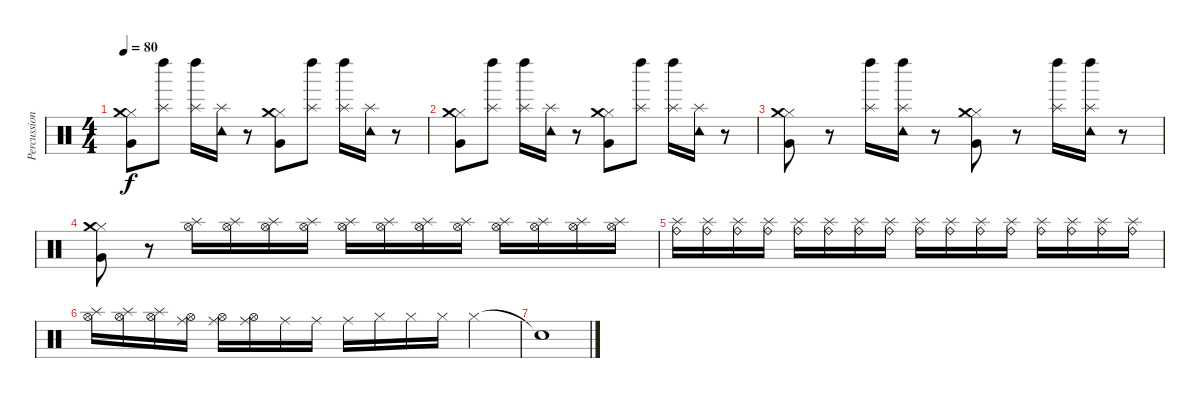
\track ("Percussion" "Percussion") {instrument percussion}
\staff {score}
\articulation defaults
\ts (4 4)
\tempo 80
\clef neutral
\ks c
("Hi-Hat (closed)" "Very Low Tom (hit)" "Crash medium (hit)").8{dy f} ("Left Maraca (hit)" "Splash (hit)").8 ("Left Maraca (hit)" "Splash (hit)").16 ("Tambourine (hit)" "Splash (hit)").16 r.8 ("Hi-Hat (closed)" "Very Low Tom (hit)" "Crash medium (hit)").8 ("Left Maraca (hit)" "Splash (hit)").8 ("Left Maraca (hit)" "Splash (hit)").16 ("Tambourine (hit)" "Splash (hit)").16 r.8 |
("Hi-Hat (closed)" "Very Low Tom (hit)" "Crash medium (hit)").8 ("Left Maraca (hit)" "Splash (hit)").8 ("Left Maraca (hit)" "Splash (hit)").16 ("Tambourine (hit)" "Splash (hit)").16 r.8 ("Hi-Hat (closed)" "Very Low Tom (hit)" "Crash medium (hit)").8 ("Left Maraca (hit)" "Splash (hit)").8 ("Left Maraca (hit)" "Splash (hit)").16 ("Tambourine (hit)" "Splash (hit)").16 r.8 |
("Hi-Hat (closed)" "Very Low Tom (hit)" "Crash medium (hit)").8 r.8 ("Left Maraca (hit)" "Splash (hit)").16 ("Tambourine (hit)" "Splash (hit)" "Left Maraca (hit)").16 r.8 ("Hi-Hat (closed)" "Very Low Tom (hit)" "Crash medium (hit)").8 r.8 ("Left Maraca (hit)" "Splash (hit)").16 ("Tambourine (hit)" "Splash (hit)" "Left Maraca (hit)").16 r.8 |
("Hi-Hat (closed)" "Very Low Tom (hit)" "Crash medium (hit)").8 r.8 ("Splash (hit)" "Hi-Hat (open)").16 ("Splash (hit)" "Hi-Hat (open)").16 ("Splash (hit)" "Hi-Hat (open)").16 ("Splash (hit)" "Hi-Hat (open)").16 ("Splash (hit)" "Hi-Hat (open)").16 ("Splash (hit)" "Hi-Hat (open)").16 ("Splash (hit)" "Hi-Hat (open)").16 ("Splash (hit)" "Hi-Hat (open)").16 ("Splash (hit)" "Hi-Hat (open)").16 ("Splash (hit)" "Hi-Hat (open)").16 ("Splash (hit)" "Hi-Hat (open)").16 ("Splash (hit)" "Hi-Hat (open)").16 |
("Splash (hit)" "Ride (bell)").16 ("Splash (hit)" "Ride (bell)").16 ("Splash (hit)" "Ride (bell)").16 ("Splash (hit)" "Ride (bell)").16 ("Splash (hit)" "Ride (bell)").16 ("Splash (hit)" "Ride (bell)").16 ("Splash (hit)" "Ride (bell)").16 ("Splash (hit)" "Ride (bell)").16 ("Splash (hit)" "Ride (bell)").16 ("Splash (hit)" "Ride (bell)").16 ("Splash (hit)" "Ride (bell)").16 ("Splash (hit)" "Ride (bell)").16 ("Splash (hit)" "Ride (bell)").16 ("Splash (hit)" "Ride (bell)").16 ("Splash (hit)" "Ride (bell)").16 ("Splash (hit)" "Ride (bell)").16 |
("Splash (hit)" "Hi-Hat (open)").16 ("Splash (hit)" "Hi-Hat (open)").16 ("Splash (hit)" "Hi-Hat (open)").16 ("Ride (middle)" "Hi-Hat (open)").16 ("Ride (middle)" "Hi-Hat (open)").16 ("Ride (middle)" "Hi-Hat (open)").16 "Ride (middle)".16 "Ride (middle)".16 "Ride (middle)".16 "Hi-Hat (closed)".16 "Hi-Hat (closed)".16 "Hi-Hat (closed)".16 "Hi-Hat (closed)".4 |
"Snare (hit)"{t}.1
